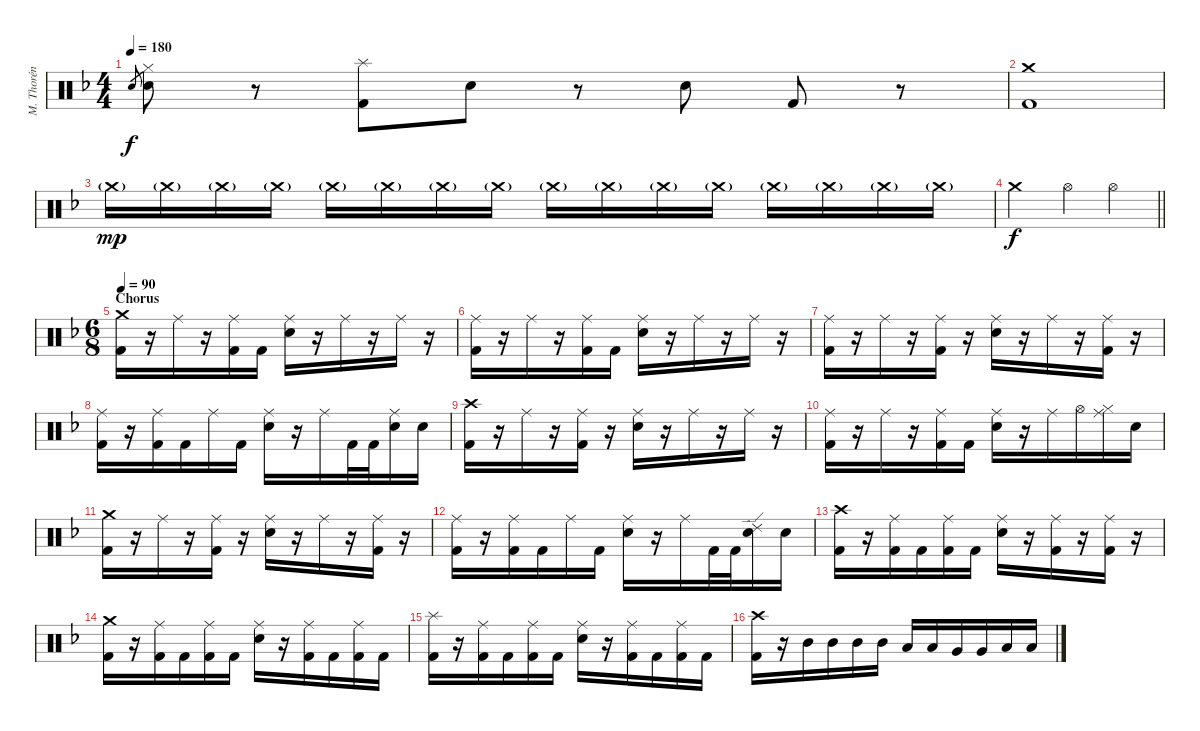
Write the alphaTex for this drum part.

\track ("M. Thorén (Drums)" "M. Thorén ") {instrument percussion}
\staff {score}
\articulation defaults
\ts (4 4)
\tempo 180
\clef neutral
\ks dminor "Electric Snare (hit)".8{gr dy f}
("Hi-Hat (closed)" "Electric Snare (hit)").8 r.8 ("Splash (hit)" "Kick (hit) 2").8 "Electric Snare (hit)".8 r.8 "Electric Snare (hit)".8 "Kick (hit) 2".8 r.8 |
("Crash medium (hit)" "Kick (hit) 2").1 |
"Crash medium (hit)"{g}.16{dy mp volume 0} "Crash medium (hit)"{g}.16{volume 12} "Crash medium (hit)"{g}.16 "Crash medium (hit)"{g}.16 "Crash medium (hit)"{g}.16 "Crash medium (hit)"{g}.16 "Crash medium (hit)"{g}.16 "Crash medium (hit)"{g}.16 "Crash medium (hit)"{g}.16 "Crash medium (hit)"{g}.16 "Crash medium (hit)"{g}.16 "Crash medium (hit)"{g}.16 "Crash medium (hit)"{g}.16 "Crash medium (hit)"{g}.16 "Crash medium (hit)"{g}.16 "Crash medium (hit)"{g}.16 |
\barLineRight lightlight "Crash medium (hit)".2{dy f} "Hi-Hat (open)".4 "Hi-Hat (open)".4
|
\ts (6 8)
\section ("" "Chorus")
\tempo 90
("Crash medium (hit)" "Kick (hit) 2").16 r.16 "Ride (middle)".16 r.16 ("Ride (middle)" "Kick (hit) 2").16 "Kick (hit) 2".16 ("Ride (middle)" "Electric Snare (hit)").16 r.16 "Ride (middle)".16 r.16 "Ride (middle)".16 r.16 |
("Ride (middle)" "Kick (hit) 2").16 r.16 "Ride (middle)".16 r.16 ("Ride (middle)" "Kick (hit) 2").16 "Kick (hit) 2".16 ("Ride (middle)" "Electric Snare (hit)").16 r.16 "Ride (middle)".16 r.16 "Ride (middle)".16 r.16 |
("Ride (middle)" "Kick (hit) 2").16 r.16 "Ride (middle)".16 r.16 ("Ride (middle)" "Kick (hit) 2").16 r.16 ("Ride (middle)" "Electric Snare (hit)").16 r.16 "Ride (middle)".16 r.16 ("Ride (middle)" "Kick (hit) 2").16 r.16 |
("Ride (middle)" "Kick (hit) 2").16 r.16 ("Ride (middle)" "Kick (hit) 2").16 "Kick (hit) 2".16 "Ride (middle)".16 "Kick (hit) 2".16 ("Ride (middle)" "Electric Snare (hit)").16 r.16 "Ride (middle)".16 "Kick (hit) 2".32 "Kick (hit) 2".32 ("Ride (middle)" "Electric Snare (hit)").16 "Electric Snare (hit)".16 |
("Crash high (hit)" "Kick (hit) 2").16 r.16 "Ride (middle)".16 r.16 ("Ride (middle)" "Kick (hit) 2").16 r.16 ("Ride (middle)" "Electric Snare (hit)").16 r.16 "Ride (middle)".16 r.16 "Ride (middle)".16 r.16 |
("Ride (middle)" "Kick (hit) 2").16 r.16 "Ride (middle)".16 r.16 ("Ride (middle)" "Kick (hit) 2").16 "Kick (hit) 2".16 ("Ride (middle)" "Electric Snare (hit)").16 r.16 "Ride (middle)".16 "Hi-Hat (open)".16 ("Ride (middle)" "Hi-Hat (closed)").16 "Electric Snare (hit)".16 |
("Crash medium (hit)" "Kick (hit) 2").16 r.16 "Ride (middle)".16 r.16 ("Ride (middle)" "Kick (hit) 2").16 r.16 ("Ride (middle)" "Electric Snare (hit)").16 r.16 "Ride (middle)".16 r.16 ("Ride (middle)" "Kick (hit) 2").16 r.16 |
("Ride (middle)" "Kick (hit) 2").16 r.16 ("Ride (middle)" "Kick (hit) 2").16 "Kick (hit) 2".16 "Ride (middle)".16 "Kick (hit) 2".16 ("Ride (middle)" "Electric Snare (hit)").16 r.16 "Ride (middle)".16 "Kick (hit) 2".32 "Kick (hit) 2".32 ("Ride (edge) 2" "Electric Snare (hit)").16 "Electric Snare (hit)".16 |
("Crash high (hit)" "Kick (hit) 2").16 r.16 ("Ride (middle)" "Kick (hit) 2").16 "Kick (hit) 2".16 ("Ride (middle)" "Kick (hit) 2").16 "Kick (hit) 2".16 ("Ride (middle)" "Electric Snare (hit)").16 r.16 ("Ride (middle)" "Kick (hit) 2").16 r.16 ("Ride (middle)" "Kick (hit) 2").16 r.16 |
("Crash medium (hit)" "Kick (hit) 2").16 r.16 ("Ride (middle)" "Kick (hit) 2").16 "Kick (hit) 2".16 ("Ride (middle)" "Kick (hit) 2").16 "Kick (hit) 2".16 ("Ride (middle)" "Electric Snare (hit)").16 r.16 ("Ride (middle)" "Kick (hit) 2").16 "Kick (hit) 2".16 ("Ride (middle)" "Kick (hit) 2").16 "Kick (hit) 2".16 |
("Splash (hit)" "Kick (hit) 2").16 r.16 ("Ride (middle)" "Kick (hit) 2").16 "Kick (hit) 2".16 ("Ride (middle)" "Kick (hit) 2").16 "Kick (hit) 2".16 ("Ride (middle)" "Electric Snare (hit)").16 r.16 ("Ride (middle)" "Kick (hit) 2").16 "Kick (hit) 2".16 ("Ride (middle)" "Kick (hit) 2").16 "Kick (hit) 2".16 |
("Crash high (hit)" "Kick (hit) 2").16 r.16 "Mid Tom (hit)".16 "Mid Tom (hit)".16 "Mid Tom (hit)".16 "Mid Tom (hit)".16 "Low Tom (hit)".16 "Low Tom (hit)".16 "Very Low Tom (hit)".16 "Very Low Tom (hit)".16 "Low Floor Tom (hit)".16 "Low Floor Tom (hit)".16
